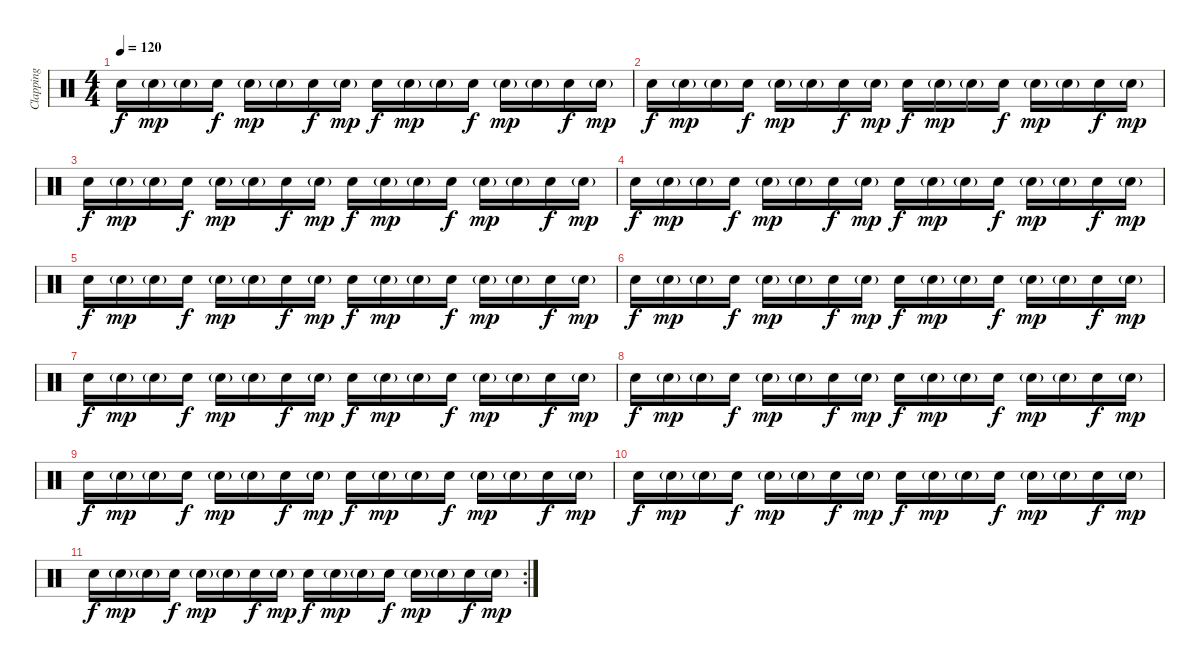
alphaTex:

\track ("Clapping" "Clapping") {instrument percussion}
\staff {score}
\articulation defaults
\ts (4 4)
\tempo 120
\clef neutral
\ks c "Hand Clap (hit)".16{dy f} "Hand Clap (hit)"{g}.16{dy mp} "Hand Clap (hit)"{g}.16 "Hand Clap (hit)".16{dy f} "Hand Clap (hit)"{g}.16{dy mp} "Hand Clap (hit)"{g}.16 "Hand Clap (hit)".16{dy f} "Hand Clap (hit)"{g}.16{dy mp} "Hand Clap (hit)".16{dy f} "Hand Clap (hit)"{g}.16{dy mp} "Hand Clap (hit)"{g}.16 "Hand Clap (hit)".16{dy f} "Hand Clap (hit)"{g}.16{dy mp} "Hand Clap (hit)"{g}.16 "Hand Clap (hit)".16{dy f} "Hand Clap (hit)"{g}.16{dy mp}
|
"Hand Clap (hit)".16{dy f} "Hand Clap (hit)"{g}.16{dy mp} "Hand Clap (hit)"{g}.16 "Hand Clap (hit)".16{dy f} "Hand Clap (hit)"{g}.16{dy mp} "Hand Clap (hit)"{g}.16 "Hand Clap (hit)".16{dy f} "Hand Clap (hit)"{g}.16{dy mp} "Hand Clap (hit)".16{dy f} "Hand Clap (hit)"{g}.16{dy mp} "Hand Clap (hit)"{g}.16 "Hand Clap (hit)".16{dy f} "Hand Clap (hit)"{g}.16{dy mp} "Hand Clap (hit)"{g}.16 "Hand Clap (hit)".16{dy f} "Hand Clap (hit)"{g}.16{dy mp} |
"Hand Clap (hit)".16{dy f} "Hand Clap (hit)"{g}.16{dy mp} "Hand Clap (hit)"{g}.16 "Hand Clap (hit)".16{dy f} "Hand Clap (hit)"{g}.16{dy mp} "Hand Clap (hit)"{g}.16 "Hand Clap (hit)".16{dy f} "Hand Clap (hit)"{g}.16{dy mp} "Hand Clap (hit)".16{dy f} "Hand Clap (hit)"{g}.16{dy mp} "Hand Clap (hit)"{g}.16 "Hand Clap (hit)".16{dy f} "Hand Clap (hit)"{g}.16{dy mp} "Hand Clap (hit)"{g}.16 "Hand Clap (hit)".16{dy f} "Hand Clap (hit)"{g}.16{dy mp} |
"Hand Clap (hit)".16{dy f} "Hand Clap (hit)"{g}.16{dy mp} "Hand Clap (hit)"{g}.16 "Hand Clap (hit)".16{dy f} "Hand Clap (hit)"{g}.16{dy mp} "Hand Clap (hit)"{g}.16 "Hand Clap (hit)".16{dy f} "Hand Clap (hit)"{g}.16{dy mp} "Hand Clap (hit)".16{dy f} "Hand Clap (hit)"{g}.16{dy mp} "Hand Clap (hit)"{g}.16 "Hand Clap (hit)".16{dy f} "Hand Clap (hit)"{g}.16{dy mp} "Hand Clap (hit)"{g}.16 "Hand Clap (hit)".16{dy f} "Hand Clap (hit)"{g}.16{dy mp} |
"Hand Clap (hit)".16{dy f} "Hand Clap (hit)"{g}.16{dy mp} "Hand Clap (hit)"{g}.16 "Hand Clap (hit)".16{dy f} "Hand Clap (hit)"{g}.16{dy mp} "Hand Clap (hit)"{g}.16 "Hand Clap (hit)".16{dy f} "Hand Clap (hit)"{g}.16{dy mp} "Hand Clap (hit)".16{dy f} "Hand Clap (hit)"{g}.16{dy mp} "Hand Clap (hit)"{g}.16 "Hand Clap (hit)".16{dy f} "Hand Clap (hit)"{g}.16{dy mp} "Hand Clap (hit)"{g}.16 "Hand Clap (hit)".16{dy f} "Hand Clap (hit)"{g}.16{dy mp} |
"Hand Clap (hit)".16{dy f} "Hand Clap (hit)"{g}.16{dy mp} "Hand Clap (hit)"{g}.16 "Hand Clap (hit)".16{dy f} "Hand Clap (hit)"{g}.16{dy mp} "Hand Clap (hit)"{g}.16 "Hand Clap (hit)".16{dy f} "Hand Clap (hit)"{g}.16{dy mp} "Hand Clap (hit)".16{dy f} "Hand Clap (hit)"{g}.16{dy mp} "Hand Clap (hit)"{g}.16 "Hand Clap (hit)".16{dy f} "Hand Clap (hit)"{g}.16{dy mp} "Hand Clap (hit)"{g}.16 "Hand Clap (hit)".16{dy f} "Hand Clap (hit)"{g}.16{dy mp} |
"Hand Clap (hit)".16{dy f} "Hand Clap (hit)"{g}.16{dy mp} "Hand Clap (hit)"{g}.16 "Hand Clap (hit)".16{dy f} "Hand Clap (hit)"{g}.16{dy mp} "Hand Clap (hit)"{g}.16 "Hand Clap (hit)".16{dy f} "Hand Clap (hit)"{g}.16{dy mp} "Hand Clap (hit)".16{dy f} "Hand Clap (hit)"{g}.16{dy mp} "Hand Clap (hit)"{g}.16 "Hand Clap (hit)".16{dy f} "Hand Clap (hit)"{g}.16{dy mp} "Hand Clap (hit)"{g}.16 "Hand Clap (hit)".16{dy f} "Hand Clap (hit)"{g}.16{dy mp} |
"Hand Clap (hit)".16{dy f} "Hand Clap (hit)"{g}.16{dy mp} "Hand Clap (hit)"{g}.16 "Hand Clap (hit)".16{dy f} "Hand Clap (hit)"{g}.16{dy mp} "Hand Clap (hit)"{g}.16 "Hand Clap (hit)".16{dy f} "Hand Clap (hit)"{g}.16{dy mp} "Hand Clap (hit)".16{dy f} "Hand Clap (hit)"{g}.16{dy mp} "Hand Clap (hit)"{g}.16 "Hand Clap (hit)".16{dy f} "Hand Clap (hit)"{g}.16{dy mp} "Hand Clap (hit)"{g}.16 "Hand Clap (hit)".16{dy f} "Hand Clap (hit)"{g}.16{dy mp} |
"Hand Clap (hit)".16{dy f} "Hand Clap (hit)"{g}.16{dy mp} "Hand Clap (hit)"{g}.16 "Hand Clap (hit)".16{dy f} "Hand Clap (hit)"{g}.16{dy mp} "Hand Clap (hit)"{g}.16 "Hand Clap (hit)".16{dy f} "Hand Clap (hit)"{g}.16{dy mp} "Hand Clap (hit)".16{dy f} "Hand Clap (hit)"{g}.16{dy mp} "Hand Clap (hit)"{g}.16 "Hand Clap (hit)".16{dy f} "Hand Clap (hit)"{g}.16{dy mp} "Hand Clap (hit)"{g}.16 "Hand Clap (hit)".16{dy f} "Hand Clap (hit)"{g}.16{dy mp} |
"Hand Clap (hit)".16{dy f} "Hand Clap (hit)"{g}.16{dy mp} "Hand Clap (hit)"{g}.16 "Hand Clap (hit)".16{dy f} "Hand Clap (hit)"{g}.16{dy mp} "Hand Clap (hit)"{g}.16 "Hand Clap (hit)".16{dy f} "Hand Clap (hit)"{g}.16{dy mp} "Hand Clap (hit)".16{dy f} "Hand Clap (hit)"{g}.16{dy mp} "Hand Clap (hit)"{g}.16 "Hand Clap (hit)".16{dy f} "Hand Clap (hit)"{g}.16{dy mp} "Hand Clap (hit)"{g}.16 "Hand Clap (hit)".16{dy f} "Hand Clap (hit)"{g}.16{dy mp} |
\rc 2 "Hand Clap (hit)".16{dy f} "Hand Clap (hit)"{g}.16{dy mp} "Hand Clap (hit)"{g}.16 "Hand Clap (hit)".16{dy f} "Hand Clap (hit)"{g}.16{dy mp} "Hand Clap (hit)"{g}.16 "Hand Clap (hit)".16{dy f} "Hand Clap (hit)"{g}.16{dy mp} "Hand Clap (hit)".16{dy f} "Hand Clap (hit)"{g}.16{dy mp} "Hand Clap (hit)"{g}.16 "Hand Clap (hit)".16{dy f} "Hand Clap (hit)"{g}.16{dy mp} "Hand Clap (hit)"{g}.16 "Hand Clap (hit)".16{dy f} "Hand Clap (hit)"{g}.16{dy mp}
